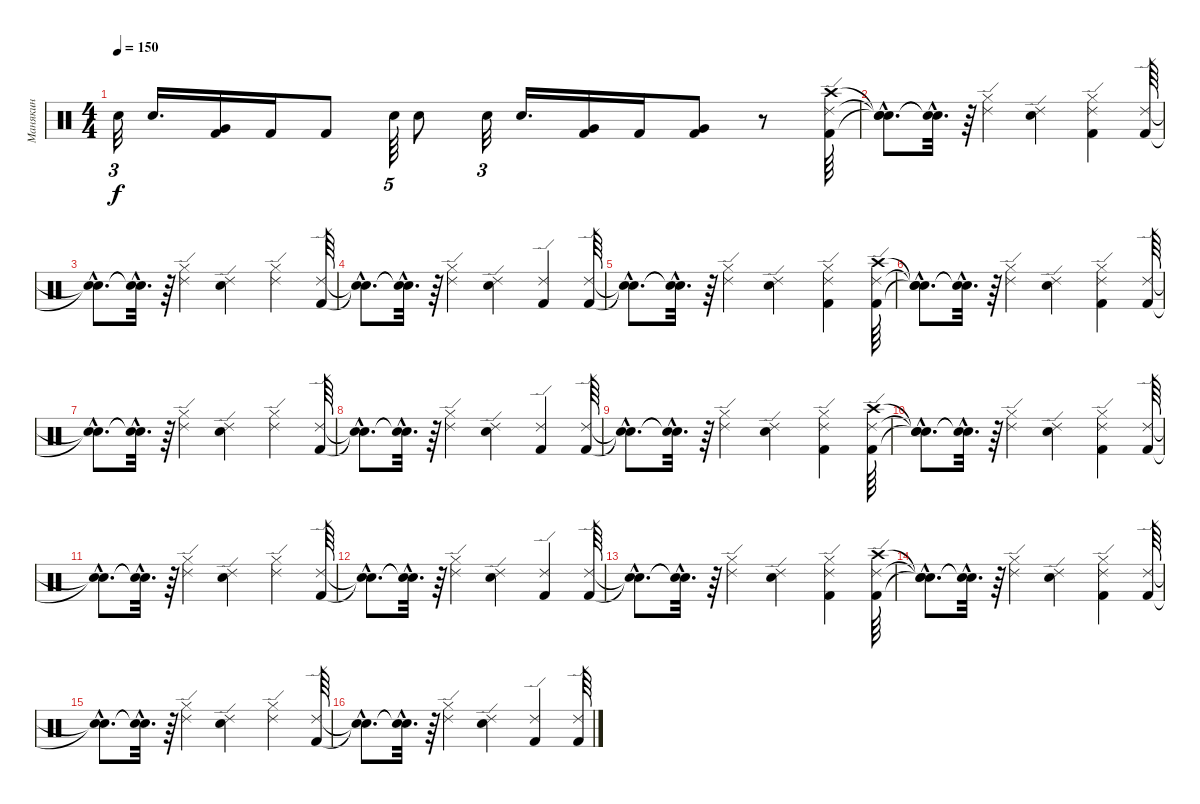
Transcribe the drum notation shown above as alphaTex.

\track ("Манякин" "Манякин") {instrument percussion}
\staff {score}
\articulation defaults
\ts (4 4)
\tempo 150
\clef neutral
\ks c "Snare (hit) 2".32{tu (3 2) dy f} "Snare (hit) 2".16{d}
("Very Low Tom (hit)" "Kick (hit) 2").16 "Kick (hit) 2".16 "Kick (hit) 2".8 "Snare (hit) 2".64{tu (5 4)} "Snare (hit) 2".8 "Snare (hit) 2".32{tu (3 2)} "Snare (hit) 2".16{d} ("Very Low Tom (hit)" "Kick (hit) 2").16 "Kick (hit) 2".16 ("Very Low Tom (hit)" "Kick (hit) 2").8 r.8 ("Ride (edge) 2" "Kick (hit) 2" "Crash high (hit)").64 |
("Snare (hit)"{hac t} "Snare (hit)"{hac t} "Snare (hit)"{hac t}).8{d} ("Snare (hit)"{hac t} "Snare (hit)"{hac t}).32{d} r.64 ("Hi-Hat (closed)" "Ride (edge) 2").4 ("Ride (edge) 2" "Snare (hit) 2").4 ("Hi-Hat (closed)" "Kick (hit) 2" "Ride (edge) 2").4 ("Ride (edge) 2" "Kick (hit) 2").64 |
("Snare (hit)"{hac t} "Snare (hit)"{hac t}).8{d} ("Snare (hit)"{hac t} "Snare (hit)"{hac t}).32{d} r.64 ("Hi-Hat (closed)" "Ride (edge) 2").4 ("Ride (edge) 2" "Snare (hit) 2").4 ("Hi-Hat (closed)" "Ride (edge) 2").4 ("Ride (edge) 2" "Kick (hit) 2").64 |
("Snare (hit)"{hac t} "Snare (hit)"{hac t}).8{d} ("Snare (hit)"{hac t} "Snare (hit)"{hac t}).32{d} r.64 ("Hi-Hat (closed)" "Ride (edge) 2").4 ("Ride (edge) 2" "Snare (hit) 2").4 ("Kick (hit) 2" "Ride (edge) 2").4 ("Ride (edge) 2" "Kick (hit) 2").64 |
("Snare (hit)"{hac t} "Snare (hit)"{hac t}).8{d} ("Snare (hit)"{hac t} "Snare (hit)"{hac t}).32{d} r.64 ("Ride (edge) 2" "Hi-Hat (closed)").4 ("Ride (edge) 2" "Snare (hit) 2").4 ("Hi-Hat (closed)" "Kick (hit) 2" "Ride (edge) 2").4 ("Ride (edge) 2" "Kick (hit) 2" "Crash high (hit)").64 |
("Snare (hit)"{hac t} "Snare (hit)"{hac t} "Snare (hit)"{hac t}).8{d} ("Snare (hit)"{hac t} "Snare (hit)"{hac t}).32{d} r.64 ("Hi-Hat (closed)" "Ride (edge) 2").4 ("Ride (edge) 2" "Snare (hit) 2").4 ("Hi-Hat (closed)" "Kick (hit) 2" "Ride (edge) 2").4 ("Ride (edge) 2" "Kick (hit) 2").64 |
("Snare (hit)"{hac t} "Snare (hit)"{hac t}).8{d} ("Snare (hit)"{hac t} "Snare (hit)"{hac t}).32{d} r.64 ("Hi-Hat (closed)" "Ride (edge) 2").4 ("Ride (edge) 2" "Snare (hit) 2").4 ("Hi-Hat (closed)" "Ride (edge) 2").4 ("Ride (edge) 2" "Kick (hit) 2").64 |
("Snare (hit)"{hac t} "Snare (hit)"{hac t}).8{d} ("Snare (hit)"{hac t} "Snare (hit)"{hac t}).32{d} r.64 ("Hi-Hat (closed)" "Ride (edge) 2").4 ("Ride (edge) 2" "Snare (hit) 2").4 ("Kick (hit) 2" "Ride (edge) 2").4 ("Ride (edge) 2" "Kick (hit) 2").64 |
("Snare (hit)"{hac t} "Snare (hit)"{hac t}).8{d} ("Snare (hit)"{hac t} "Snare (hit)"{hac t}).32{d} r.64 ("Ride (edge) 2" "Hi-Hat (closed)").4 ("Ride (edge) 2" "Snare (hit) 2").4 ("Hi-Hat (closed)" "Kick (hit) 2" "Ride (edge) 2").4 ("Ride (edge) 2" "Kick (hit) 2" "Crash high (hit)").64 |
("Snare (hit)"{hac t} "Snare (hit)"{hac t} "Snare (hit)"{hac t}).8{d} ("Snare (hit)"{hac t} "Snare (hit)"{hac t}).32{d} r.64 ("Hi-Hat (closed)" "Ride (edge) 2").4 ("Ride (edge) 2" "Snare (hit) 2").4 ("Hi-Hat (closed)" "Kick (hit) 2" "Ride (edge) 2").4 ("Ride (edge) 2" "Kick (hit) 2").64 |
("Snare (hit)"{hac t} "Snare (hit)"{hac t}).8{d} ("Snare (hit)"{hac t} "Snare (hit)"{hac t}).32{d} r.64 ("Hi-Hat (closed)" "Ride (edge) 2").4 ("Ride (edge) 2" "Snare (hit) 2").4 ("Hi-Hat (closed)" "Ride (edge) 2").4 ("Ride (edge) 2" "Kick (hit) 2").64 |
("Snare (hit)"{hac t} "Snare (hit)"{hac t}).8{d} ("Snare (hit)"{hac t} "Snare (hit)"{hac t}).32{d} r.64 ("Hi-Hat (closed)" "Ride (edge) 2").4 ("Ride (edge) 2" "Snare (hit) 2").4 ("Kick (hit) 2" "Ride (edge) 2").4 ("Ride (edge) 2" "Kick (hit) 2").64 |
("Snare (hit)"{hac t} "Snare (hit)"{hac t}).8{d} ("Snare (hit)"{hac t} "Snare (hit)"{hac t}).32{d} r.64 ("Ride (edge) 2" "Hi-Hat (closed)").4 ("Ride (edge) 2" "Snare (hit) 2").4 ("Hi-Hat (closed)" "Kick (hit) 2" "Ride (edge) 2").4 ("Ride (edge) 2" "Kick (hit) 2" "Crash high (hit)").64 |
("Snare (hit)"{hac t} "Snare (hit)"{hac t} "Snare (hit)"{hac t}).8{d} ("Snare (hit)"{hac t} "Snare (hit)"{hac t}).32{d} r.64 ("Hi-Hat (closed)" "Ride (edge) 2").4 ("Ride (edge) 2" "Snare (hit) 2").4 ("Hi-Hat (closed)" "Kick (hit) 2" "Ride (edge) 2").4 ("Ride (edge) 2" "Kick (hit) 2").64 |
("Snare (hit)"{hac t} "Snare (hit)"{hac t}).8{d} ("Snare (hit)"{hac t} "Snare (hit)"{hac t}).32{d} r.64 ("Hi-Hat (closed)" "Ride (edge) 2").4 ("Ride (edge) 2" "Snare (hit) 2").4 ("Hi-Hat (closed)" "Ride (edge) 2").4 ("Ride (edge) 2" "Kick (hit) 2").64 |
("Snare (hit)"{hac t} "Snare (hit)"{hac t}).8{d} ("Snare (hit)"{hac t} "Snare (hit)"{hac t}).32{d} r.64 ("Hi-Hat (closed)" "Ride (edge) 2").4 ("Ride (edge) 2" "Snare (hit) 2").4 ("Kick (hit) 2" "Ride (edge) 2").4 ("Ride (edge) 2" "Kick (hit) 2").64
